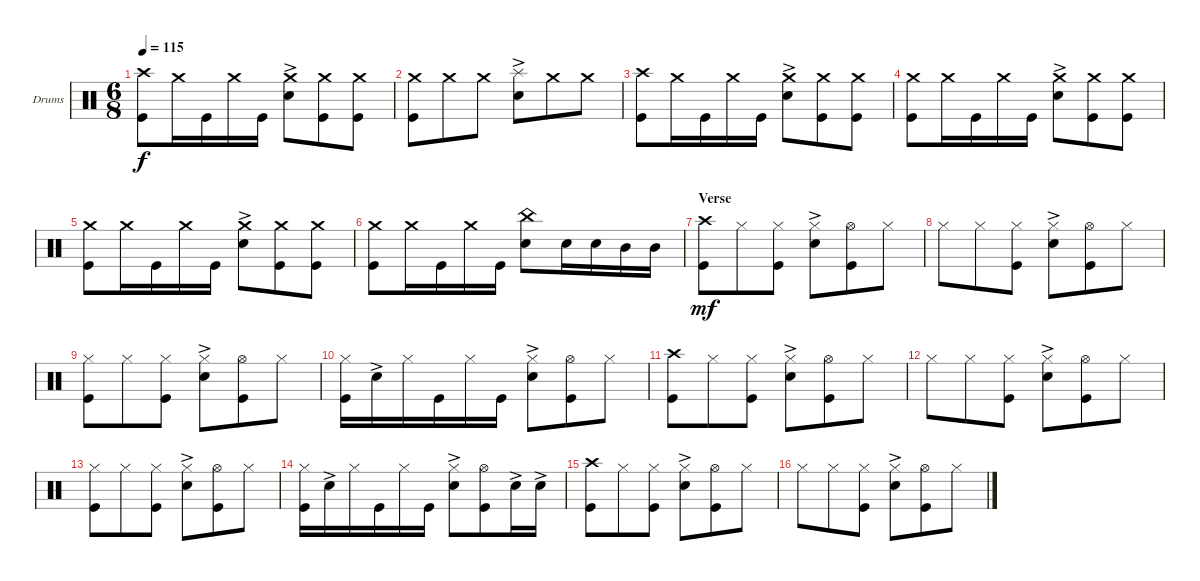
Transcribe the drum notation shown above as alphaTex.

\bracketExtendMode groupsimilarinstruments
\firstSystemTrackNameOrientation horizontal
\otherSystemsTrackNameOrientation horizontal
\track ("Drumkit" "Drums") {instrument percussion}
\staff {score}
\articulation defaults
\ts (6 8)
\tempo 115
\clef neutral
\ks c
("Kick (hit)" "Crash high (hit)").8{dy f} "Crash medium (hit)".16 "Kick (hit)".16 "Crash medium (hit)".16 "Kick (hit)".16 ("Snare (hit) 2"{ac} "Crash medium (hit)").8 ("Kick (hit)" "Crash medium (hit)").8 ("Kick (hit)" "Crash medium (hit)").8 |
("Kick (hit)" "Crash medium (hit)").8 "Crash medium (hit)".8 "Crash medium (hit)".8 ("Snare (hit) 2"{ac} "Splash (hit)").8 "Crash medium (hit)".8 "Crash medium (hit)".8 |
("Kick (hit)" "Crash high (hit)").8 "Crash medium (hit)".16 "Kick (hit)".16 "Crash medium (hit)".16 "Kick (hit)".16 ("Snare (hit) 2"{ac} "Crash medium (hit)").8 ("Kick (hit)" "Crash medium (hit)").8 ("Kick (hit)" "Crash medium (hit)").8 |
("Kick (hit)" "Crash medium (hit)").8 "Crash medium (hit)".16 "Kick (hit)".16 "Crash medium (hit)".16 "Kick (hit)".16 ("Snare (hit) 2"{ac} "Crash medium (hit)").8 ("Kick (hit)" "Crash medium (hit)").8 ("Kick (hit)" "Crash medium (hit)").8 |
("Kick (hit)" "Crash medium (hit)").8 "Crash medium (hit)".16 "Kick (hit)".16 "Crash medium (hit)".16 "Kick (hit)".16 ("Snare (hit) 2"{ac} "Crash medium (hit)").8 ("Kick (hit)" "Crash medium (hit)").8 ("Kick (hit)" "Crash medium (hit)").8 |
("Kick (hit)" "Crash medium (hit)").8 "Crash medium (hit)".16 "Kick (hit)".16 "Crash medium (hit)".16 "Kick (hit)".16 ("Snare (hit) 2" "China (hit)").8 "Snare (hit) 2".16 "Snare (hit) 2".16 "Mid Tom (hit)".16 "Mid Tom (hit)".16 |
\section ("" "Verse")
("Crash high (hit)" "Kick (hit)").8{dy mf} "Hi-Hat (closed)".8 ("Kick (hit)" "Hi-Hat (closed)").8 ("Snare (hit) 2"{ac} "Hi-Hat (closed)").8 ("Kick (hit)" "Hi-Hat (open)").8 "Hi-Hat (closed)".8 |
"Hi-Hat (closed)".8 "Hi-Hat (closed)".8 ("Hi-Hat (closed)" "Kick (hit)").8 ("Hi-Hat (closed)" "Snare (hit) 2"{ac}).8 ("Kick (hit)" "Hi-Hat (open)").8 "Hi-Hat (closed)".8 |
("Kick (hit)" "Hi-Hat (closed)").8 "Hi-Hat (closed)".8 ("Kick (hit)" "Hi-Hat (closed)").8 ("Snare (hit) 2"{ac} "Hi-Hat (closed)").8 ("Kick (hit)" "Hi-Hat (open)").8 "Hi-Hat (closed)".8 |
("Kick (hit)" "Hi-Hat (closed)").16 "Snare (hit) 2"{ac}.16 "Hi-Hat (closed)".16 "Kick (hit)".16 "Hi-Hat (closed)".16 "Kick (hit)".16 ("Snare (hit) 2"{ac} "Hi-Hat (closed)").8 ("Kick (hit)" "Hi-Hat (open)").8 "Hi-Hat (closed)".8 |
("Crash high (hit)" "Kick (hit)").8 "Hi-Hat (closed)".8 ("Kick (hit)" "Hi-Hat (closed)").8 ("Snare (hit) 2"{ac} "Hi-Hat (closed)").8 ("Kick (hit)" "Hi-Hat (open)").8 "Hi-Hat (closed)".8 |
"Hi-Hat (closed)".8 "Hi-Hat (closed)".8 ("Hi-Hat (closed)" "Kick (hit)").8 ("Hi-Hat (closed)" "Snare (hit) 2"{ac}).8 ("Kick (hit)" "Hi-Hat (open)").8 "Hi-Hat (closed)".8 |
("Kick (hit)" "Hi-Hat (closed)").8 "Hi-Hat (closed)".8 ("Kick (hit)" "Hi-Hat (closed)").8 ("Snare (hit) 2"{ac} "Hi-Hat (closed)").8 ("Kick (hit)" "Hi-Hat (open)").8 "Hi-Hat (closed)".8 |
("Kick (hit)" "Hi-Hat (closed)").16 "Snare (hit) 2"{ac}.16 "Hi-Hat (closed)".16 "Kick (hit)".16 "Hi-Hat (closed)".16 "Kick (hit)".16 ("Snare (hit) 2"{ac} "Hi-Hat (closed)").8 ("Kick (hit)" "Hi-Hat (open)").8 "Snare (hit) 2"{ac}.16 "Snare (hit) 2"{ac}.16 |
("Crash high (hit)" "Kick (hit)").8 "Hi-Hat (closed)".8 ("Kick (hit)" "Hi-Hat (closed)").8 ("Snare (hit) 2"{ac} "Hi-Hat (closed)").8 ("Kick (hit)" "Hi-Hat (open)").8 "Hi-Hat (closed)".8 |
"Hi-Hat (closed)".8 "Hi-Hat (closed)".8 ("Hi-Hat (closed)" "Kick (hit)").8 ("Hi-Hat (closed)" "Snare (hit) 2"{ac}).8 ("Kick (hit)" "Hi-Hat (open)").8 "Hi-Hat (closed)".8
